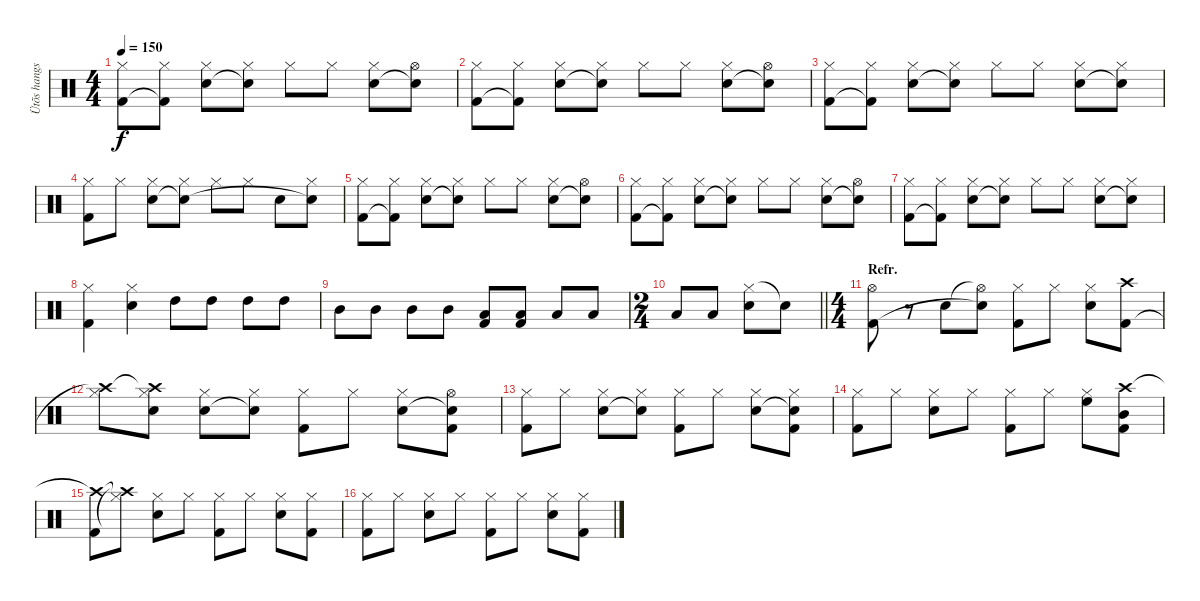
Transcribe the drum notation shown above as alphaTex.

\track ("Ütõs hangszer" "Ütõs hangs") {instrument percussion}
\staff {score}
\articulation defaults
\ts (4 4)
\tempo 150
\clef neutral
\ks c
("Hi-Hat (closed)" "Kick (hit) 2").8{dy f} ("Hi-Hat (closed)" "Kick (hit) 2"{t}).8 ("Hi-Hat (closed)" "Snare (hit) 2").8 ("Hi-Hat (closed)" "Snare (hit) 2"{t}).8 "Hi-Hat (closed)".8 "Hi-Hat (closed)".8 ("Hi-Hat (closed)" "Snare (hit) 2").8 ("Hi-Hat (open)" "Snare (hit) 2"{t}).8 |
("Hi-Hat (closed)" "Kick (hit) 2").8 ("Hi-Hat (closed)" "Kick (hit) 2"{t}).8 ("Hi-Hat (closed)" "Snare (hit) 2").8 ("Hi-Hat (closed)" "Snare (hit) 2"{t}).8 "Hi-Hat (closed)".8 "Hi-Hat (closed)".8 ("Hi-Hat (closed)" "Snare (hit) 2").8 ("Hi-Hat (open)" "Snare (hit) 2"{t}).8 |
("Hi-Hat (closed)" "Kick (hit) 2").8 ("Hi-Hat (closed)" "Kick (hit) 2"{t}).8 ("Hi-Hat (closed)" "Snare (hit) 2").8 ("Hi-Hat (closed)" "Snare (hit) 2"{t}).8 "Hi-Hat (closed)".8 "Hi-Hat (closed)".8 ("Hi-Hat (closed)" "Snare (hit) 2").8 ("Hi-Hat (closed)" "Snare (hit) 2"{t}).8 |
("Hi-Hat (closed)" "Kick (hit) 2").8 "Hi-Hat (closed)".8 ("Hi-Hat (closed)" "Snare (hit) 2").8 ("Hi-Hat (closed)" "Snare (hit) 2"{t}).8 "Hi-Hat (closed)".8 "Hi-Hat (closed)".8 "Snare (hit) 2".8 ("Hi-Hat (closed)" "Snare (hit) 2"{t}).8 |
("Hi-Hat (closed)" "Kick (hit) 2").8 ("Hi-Hat (closed)" "Kick (hit) 2"{t}).8 ("Hi-Hat (closed)" "Snare (hit) 2").8 ("Hi-Hat (closed)" "Snare (hit) 2"{t}).8 "Hi-Hat (closed)".8 "Hi-Hat (closed)".8 ("Hi-Hat (closed)" "Snare (hit) 2").8 ("Hi-Hat (open)" "Snare (hit) 2"{t}).8 |
("Hi-Hat (closed)" "Kick (hit) 2").8 ("Hi-Hat (closed)" "Kick (hit) 2"{t}).8 ("Hi-Hat (closed)" "Snare (hit) 2").8 ("Hi-Hat (closed)" "Snare (hit) 2"{t}).8 "Hi-Hat (closed)".8 "Hi-Hat (closed)".8 ("Hi-Hat (closed)" "Snare (hit) 2").8 ("Hi-Hat (open)" "Snare (hit) 2"{t}).8 |
("Hi-Hat (closed)" "Kick (hit) 2").8 ("Hi-Hat (closed)" "Kick (hit) 2"{t}).8 ("Hi-Hat (closed)" "Snare (hit) 2").8 ("Hi-Hat (closed)" "Snare (hit) 2"{t}).8 "Hi-Hat (closed)".8 "Hi-Hat (closed)".8 ("Hi-Hat (closed)" "Snare (hit) 2").8 ("Hi-Hat (closed)" "Snare (hit) 2"{t}).8 |
("Hi-Hat (closed)" "Kick (hit) 2").4 ("Hi-Hat (closed)" "Snare (hit) 2").4 "High Tom (hit)".8 "High Tom (hit)".8 "High Tom (hit)".8 "High Tom (hit)".8 |
"Mid Tom (hit)".8 "Mid Tom (hit)".8 "Mid Tom (hit)".8 "Mid Tom (hit)".8 ("Low Tom (hit)" "Kick (hit) 2").8 ("Low Tom (hit)" "Kick (hit) 2").8 "Low Tom (hit)".8 "Low Tom (hit)".8 |
\ts (2 4)
\barLineRight lightlight "Low Floor Tom (hit)".8 "Low Floor Tom (hit)".8
("Hi-Hat (closed)" "Snare (hit) 2").8 "Snare (hit) 2"{t}.8 |
\ts (4 4)
\section ("" "Refr.")
("Hi-Hat (open)" "Kick (hit) 2").8 r.8 "Snare (hit) 2".8 ("Hi-Hat (open)"{t} "Snare (hit) 2"{t}).8 ("Hi-Hat (closed)" "Kick (hit) 2").8 "Hi-Hat (closed)".8 ("Hi-Hat (closed)" "Snare (hit) 2").8 ("Crash high (hit)" "Kick (hit) 2").8 |
("Hi-Hat (closed)" "Crash high (hit)"{t}).8 ("Hi-Hat (closed)" "Crash high (hit)"{t} "Snare (hit) 2").8 ("Hi-Hat (closed)" "Snare (hit) 2").8 ("Hi-Hat (closed)" "Snare (hit) 2"{t}).8 ("Hi-Hat (closed)" "Kick (hit) 2").8 "Hi-Hat (closed)".8 ("Hi-Hat (closed)" "Snare (hit) 2").8 ("Hi-Hat (open)" "Snare (hit) 2"{t} "Kick (hit) 2").8 |
("Hi-Hat (closed)" "Kick (hit) 2").8 "Hi-Hat (closed)".8 ("Hi-Hat (closed)" "Snare (hit) 2").8 ("Hi-Hat (closed)" "Snare (hit) 2"{t}).8 ("Hi-Hat (closed)" "Kick (hit) 2").8 "Hi-Hat (closed)".8 ("Hi-Hat (closed)" "Snare (hit) 2").8 ("Hi-Hat (closed)" "Snare (hit) 2"{t} "Kick (hit) 2").8 |
("Hi-Hat (closed)" "Kick (hit) 2").8 "Hi-Hat (closed)".8 ("Hi-Hat (closed)" "Snare (hit) 2").8 "Hi-Hat (closed)".8 ("Hi-Hat (closed)" "Kick (hit) 2").8 "Hi-Hat (closed)".8 ("Hi-Hat (closed)" "High Floor Tom (hit)").8 ("Crash high (hit)" "Mid Tom (hit)" "Kick (hit) 2").8 |
("Crash high (hit)"{t} "Kick (hit) 2").8 ("Hi-Hat (closed)"{t} "Crash high (hit)"{t}).8 ("Hi-Hat (closed)" "Snare (hit) 2").8 "Hi-Hat (closed)".8 ("Hi-Hat (closed)" "Kick (hit) 2").8 "Hi-Hat (closed)".8 ("Hi-Hat (closed)" "Snare (hit) 2").8 ("Hi-Hat (closed)" "Kick (hit) 2").8 |
("Hi-Hat (closed)" "Kick (hit) 2").8 "Hi-Hat (closed)".8 ("Hi-Hat (closed)" "Snare (hit) 2").8 "Hi-Hat (closed)".8 ("Hi-Hat (closed)" "Kick (hit) 2").8 "Hi-Hat (closed)".8 ("Hi-Hat (closed)" "Snare (hit) 2").8 ("Hi-Hat (closed)" "Kick (hit) 2").8
